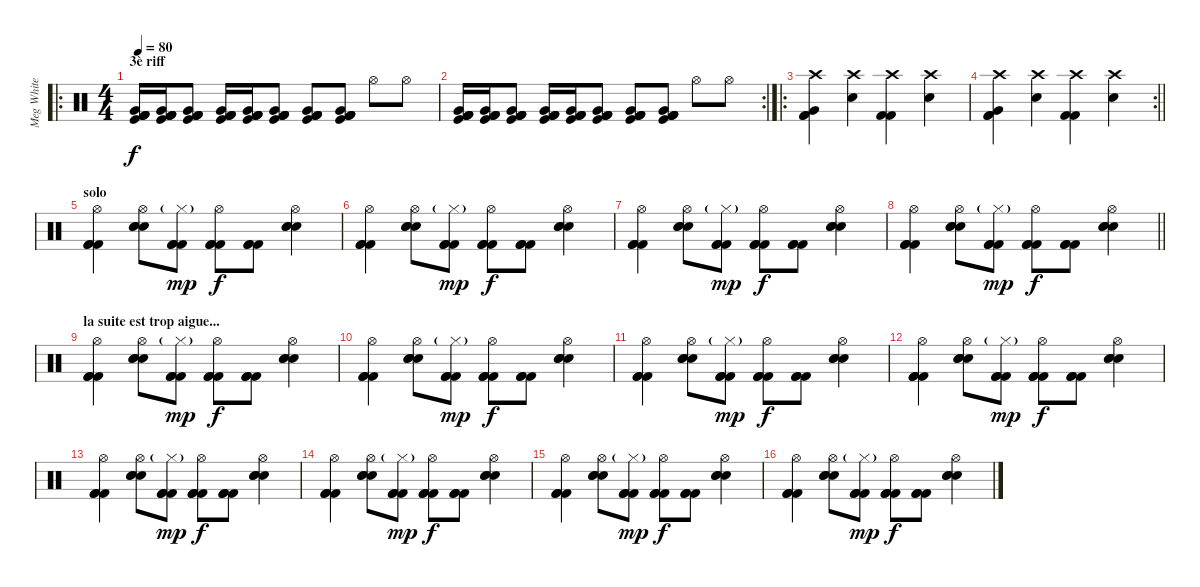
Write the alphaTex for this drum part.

\track ("Meg White" "Meg White") {instrument percussion}
\staff {score}
\articulation defaults
\ro
\ts (4 4)
\section ("" "3è riff")
\tempo 80
\clef neutral
\ks c
("Kick (hit)" "Kick (hit) 2" "Kick (hit) 2" "Kick (hit) 2" "Very Low Tom (hit)").16{dy f} ("Kick (hit)" "Kick (hit) 2" "Kick (hit) 2" "Kick (hit) 2" "Very Low Tom (hit)").16 ("Kick (hit)" "Kick (hit) 2" "Kick (hit) 2" "Kick (hit) 2" "Very Low Tom (hit)").8 ("Kick (hit)" "Kick (hit) 2" "Kick (hit) 2" "Kick (hit) 2" "Very Low Tom (hit)").16 ("Kick (hit)" "Kick (hit) 2" "Kick (hit) 2" "Kick (hit) 2" "Very Low Tom (hit)").16 ("Kick (hit)" "Kick (hit) 2" "Kick (hit) 2" "Kick (hit) 2" "Very Low Tom (hit)").8 ("Kick (hit)" "Kick (hit) 2" "Kick (hit) 2" "Kick (hit) 2" "Very Low Tom (hit)").8 ("Kick (hit)" "Kick (hit) 2" "Kick (hit) 2" "Kick (hit) 2" "Very Low Tom (hit)").8 "Hi-Hat (open)".8 "Hi-Hat (open)".8 |
\rc 2
("Kick (hit)" "Kick (hit) 2" "Kick (hit) 2" "Kick (hit) 2" "Very Low Tom (hit)").16 ("Kick (hit)" "Kick (hit) 2" "Kick (hit) 2" "Kick (hit) 2" "Very Low Tom (hit)").16 ("Kick (hit)" "Kick (hit) 2" "Kick (hit) 2" "Kick (hit) 2" "Very Low Tom (hit)").8 ("Kick (hit)" "Kick (hit) 2" "Kick (hit) 2" "Kick (hit) 2" "Very Low Tom (hit)").16 ("Kick (hit)" "Kick (hit) 2" "Kick (hit) 2" "Kick (hit) 2" "Very Low Tom (hit)").16 ("Kick (hit)" "Kick (hit) 2" "Kick (hit) 2" "Kick (hit) 2" "Very Low Tom (hit)").8 ("Kick (hit)" "Kick (hit) 2" "Kick (hit) 2" "Kick (hit) 2" "Very Low Tom (hit)").8 ("Kick (hit)" "Kick (hit) 2" "Kick (hit) 2" "Kick (hit) 2" "Very Low Tom (hit)").8 "Hi-Hat (open)".8 "Hi-Hat (open)".8 |
\ro
("Crash high (hit)" "Kick (hit) 2" "Kick (hit) 2" "Very Low Tom (hit)").4 ("Crash high (hit)" "Electric Snare (hit)").4 ("Crash high (hit)" "Kick (hit) 2" "Kick (hit) 2").4 ("Crash high (hit)" "Electric Snare (hit)").4 |
\rc 2
\barLineRight lightlight
("Crash high (hit)" "Kick (hit) 2" "Kick (hit) 2" "Very Low Tom (hit)").4 ("Crash high (hit)" "Electric Snare (hit)").4 ("Crash high (hit)" "Kick (hit) 2" "Kick (hit) 2").4 ("Crash high (hit)" "Electric Snare (hit)").4 |
\section ("" "solo")
("Hi-Hat (open)" "Kick (hit) 2" "Kick (hit) 2" "Kick (hit) 2").4 ("Hi-Hat (open)" "Electric Snare (hit)" "Electric Snare (hit)" "Electric Snare (hit)").8 ("Hi-Hat (closed)"{g} "Kick (hit) 2" "Kick (hit) 2" "Kick (hit) 2").8{dy mp} ("Hi-Hat (open)" "Kick (hit) 2" "Kick (hit) 2" "Kick (hit) 2").8{dy f} ("Kick (hit) 2" "Kick (hit) 2" "Kick (hit) 2").8 ("Hi-Hat (open)" "Electric Snare (hit)" "Electric Snare (hit)" "Electric Snare (hit)").4 |
("Hi-Hat (open)" "Kick (hit) 2" "Kick (hit) 2" "Kick (hit) 2").4 ("Hi-Hat (open)" "Electric Snare (hit)" "Electric Snare (hit)" "Electric Snare (hit)").8 ("Hi-Hat (closed)"{g} "Kick (hit) 2" "Kick (hit) 2" "Kick (hit) 2").8{dy mp} ("Hi-Hat (open)" "Kick (hit) 2" "Kick (hit) 2" "Kick (hit) 2").8{dy f} ("Kick (hit) 2" "Kick (hit) 2" "Kick (hit) 2").8 ("Hi-Hat (open)" "Electric Snare (hit)" "Electric Snare (hit)" "Electric Snare (hit)").4 |
("Hi-Hat (open)" "Kick (hit) 2" "Kick (hit) 2" "Kick (hit) 2").4 ("Hi-Hat (open)" "Electric Snare (hit)" "Electric Snare (hit)" "Electric Snare (hit)").8 ("Hi-Hat (closed)"{g} "Kick (hit) 2" "Kick (hit) 2" "Kick (hit) 2").8{dy mp} ("Hi-Hat (open)" "Kick (hit) 2" "Kick (hit) 2" "Kick (hit) 2").8{dy f} ("Kick (hit) 2" "Kick (hit) 2" "Kick (hit) 2").8 ("Hi-Hat (open)" "Electric Snare (hit)" "Electric Snare (hit)" "Electric Snare (hit)").4 |
\barLineRight lightlight
("Hi-Hat (open)" "Kick (hit) 2" "Kick (hit) 2" "Kick (hit) 2").4 ("Hi-Hat (open)" "Electric Snare (hit)" "Electric Snare (hit)" "Electric Snare (hit)").8 ("Hi-Hat (closed)"{g} "Kick (hit) 2" "Kick (hit) 2" "Kick (hit) 2").8{dy mp} ("Hi-Hat (open)" "Kick (hit) 2" "Kick (hit) 2" "Kick (hit) 2").8{dy f} ("Kick (hit) 2" "Kick (hit) 2" "Kick (hit) 2").8 ("Hi-Hat (open)" "Electric Snare (hit)" "Electric Snare (hit)" "Electric Snare (hit)").4 |
\section ("" "la suite est trop aigue...")
("Hi-Hat (open)" "Kick (hit) 2" "Kick (hit) 2" "Kick (hit) 2").4 ("Hi-Hat (open)" "Electric Snare (hit)" "Electric Snare (hit)" "Electric Snare (hit)").8 ("Hi-Hat (closed)"{g} "Kick (hit) 2" "Kick (hit) 2" "Kick (hit) 2").8{dy mp} ("Hi-Hat (open)" "Kick (hit) 2" "Kick (hit) 2" "Kick (hit) 2").8{dy f} ("Kick (hit) 2" "Kick (hit) 2" "Kick (hit) 2").8 ("Hi-Hat (open)" "Electric Snare (hit)" "Electric Snare (hit)" "Electric Snare (hit)").4 |
("Hi-Hat (open)" "Kick (hit) 2" "Kick (hit) 2" "Kick (hit) 2").4 ("Hi-Hat (open)" "Electric Snare (hit)" "Electric Snare (hit)" "Electric Snare (hit)").8 ("Hi-Hat (closed)"{g} "Kick (hit) 2" "Kick (hit) 2" "Kick (hit) 2").8{dy mp} ("Hi-Hat (open)" "Kick (hit) 2" "Kick (hit) 2" "Kick (hit) 2").8{dy f} ("Kick (hit) 2" "Kick (hit) 2" "Kick (hit) 2").8 ("Hi-Hat (open)" "Electric Snare (hit)" "Electric Snare (hit)" "Electric Snare (hit)").4 |
("Hi-Hat (open)" "Kick (hit) 2" "Kick (hit) 2" "Kick (hit) 2").4 ("Hi-Hat (open)" "Electric Snare (hit)" "Electric Snare (hit)" "Electric Snare (hit)").8 ("Hi-Hat (closed)"{g} "Kick (hit) 2" "Kick (hit) 2" "Kick (hit) 2").8{dy mp} ("Hi-Hat (open)" "Kick (hit) 2" "Kick (hit) 2" "Kick (hit) 2").8{dy f} ("Kick (hit) 2" "Kick (hit) 2" "Kick (hit) 2").8 ("Hi-Hat (open)" "Electric Snare (hit)" "Electric Snare (hit)" "Electric Snare (hit)").4 |
("Hi-Hat (open)" "Kick (hit) 2" "Kick (hit) 2" "Kick (hit) 2").4 ("Hi-Hat (open)" "Electric Snare (hit)" "Electric Snare (hit)" "Electric Snare (hit)").8 ("Hi-Hat (closed)"{g} "Kick (hit) 2" "Kick (hit) 2" "Kick (hit) 2").8{dy mp} ("Hi-Hat (open)" "Kick (hit) 2" "Kick (hit) 2" "Kick (hit) 2").8{dy f} ("Kick (hit) 2" "Kick (hit) 2" "Kick (hit) 2").8 ("Hi-Hat (open)" "Electric Snare (hit)" "Electric Snare (hit)" "Electric Snare (hit)").4 |
("Hi-Hat (open)" "Kick (hit) 2" "Kick (hit) 2" "Kick (hit) 2").4 ("Hi-Hat (open)" "Electric Snare (hit)" "Electric Snare (hit)" "Electric Snare (hit)").8 ("Hi-Hat (closed)"{g} "Kick (hit) 2" "Kick (hit) 2" "Kick (hit) 2").8{dy mp} ("Hi-Hat (open)" "Kick (hit) 2" "Kick (hit) 2" "Kick (hit) 2").8{dy f} ("Kick (hit) 2" "Kick (hit) 2" "Kick (hit) 2").8 ("Hi-Hat (open)" "Electric Snare (hit)" "Electric Snare (hit)" "Electric Snare (hit)").4 |
("Hi-Hat (open)" "Kick (hit) 2" "Kick (hit) 2" "Kick (hit) 2").4 ("Hi-Hat (open)" "Electric Snare (hit)" "Electric Snare (hit)" "Electric Snare (hit)").8 ("Hi-Hat (closed)"{g} "Kick (hit) 2" "Kick (hit) 2" "Kick (hit) 2").8{dy mp} ("Hi-Hat (open)" "Kick (hit) 2" "Kick (hit) 2" "Kick (hit) 2").8{dy f} ("Kick (hit) 2" "Kick (hit) 2" "Kick (hit) 2").8 ("Hi-Hat (open)" "Electric Snare (hit)" "Electric Snare (hit)" "Electric Snare (hit)").4 |
("Hi-Hat (open)" "Kick (hit) 2" "Kick (hit) 2" "Kick (hit) 2").4 ("Hi-Hat (open)" "Electric Snare (hit)" "Electric Snare (hit)" "Electric Snare (hit)").8 ("Hi-Hat (closed)"{g} "Kick (hit) 2" "Kick (hit) 2" "Kick (hit) 2").8{dy mp} ("Hi-Hat (open)" "Kick (hit) 2" "Kick (hit) 2" "Kick (hit) 2").8{dy f} ("Kick (hit) 2" "Kick (hit) 2" "Kick (hit) 2").8 ("Hi-Hat (open)" "Electric Snare (hit)" "Electric Snare (hit)" "Electric Snare (hit)").4 |
("Hi-Hat (open)" "Kick (hit) 2" "Kick (hit) 2" "Kick (hit) 2").4 ("Hi-Hat (open)" "Electric Snare (hit)" "Electric Snare (hit)" "Electric Snare (hit)").8 ("Hi-Hat (closed)"{g} "Kick (hit) 2" "Kick (hit) 2" "Kick (hit) 2").8{dy mp} ("Hi-Hat (open)" "Kick (hit) 2" "Kick (hit) 2" "Kick (hit) 2").8{dy f} ("Kick (hit) 2" "Kick (hit) 2" "Kick (hit) 2").8 ("Hi-Hat (open)" "Electric Snare (hit)" "Electric Snare (hit)" "Electric Snare (hit)").4
